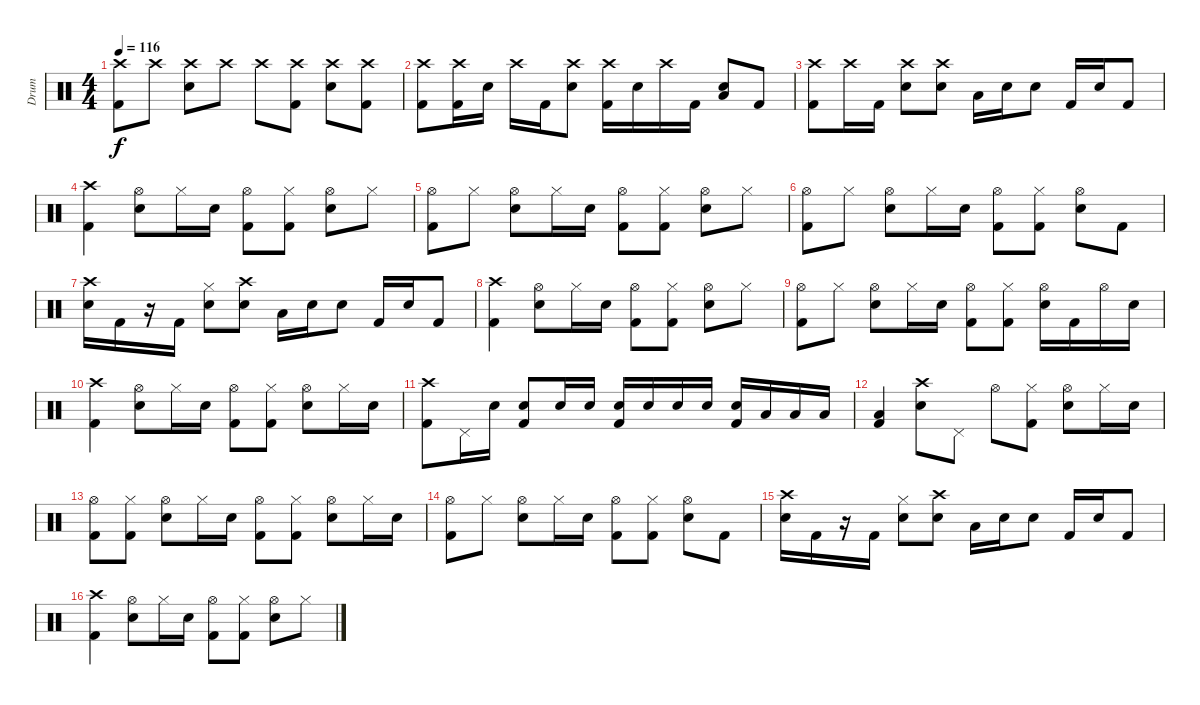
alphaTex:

\track ("Drum" "Drum") {instrument percussion}
\staff {score}
\articulation defaults
\ts (4 4)
\tempo 116
\clef neutral
\ks c
("Crash high (hit)" "Kick (hit) 2").8{dy f} "Crash high (hit)".8 ("Crash high (hit)" "Electric Snare (hit)").8 "Crash high (hit)".8 "Crash high (hit)".8 ("Crash high (hit)" "Kick (hit) 2").8 ("Crash high (hit)" "Electric Snare (hit)").8 ("Crash high (hit)" "Kick (hit) 2").8 |
("Crash high (hit)" "Kick (hit) 2").8 ("Crash high (hit)" "Kick (hit) 2").16 "Electric Snare (hit)".16 "Crash high (hit)".16 "Kick (hit) 2".16 ("Crash high (hit)" "Electric Snare (hit)").8 ("Crash high (hit)" "Kick (hit) 2").16 "Electric Snare (hit)".16 "Crash high (hit)".16 "Kick (hit) 2".16 ("Electric Snare (hit)" "Low Floor Tom (hit)").8 "Kick (hit) 2".8 |
("Crash high (hit)" "Kick (hit) 2").8 "Crash high (hit)".16 "Kick (hit) 2".16 ("Crash high (hit)" "Electric Snare (hit)").8 ("Crash high (hit)" "Electric Snare (hit)").8 "Low Tom (hit)".16 "Electric Snare (hit)".16 "Electric Snare (hit)".8 "Kick (hit) 2".16 "Electric Snare (hit)".16 "Kick (hit) 2".8 |
("Crash high (hit)" "Kick (hit) 2").4 ("Hi-Hat (open)" "Electric Snare (hit)").8 "Hi-Hat (closed)".16 "Electric Snare (hit)".16 ("Hi-Hat (open)" "Kick (hit) 2").8 ("Hi-Hat (closed)" "Kick (hit) 2").8 ("Hi-Hat (open)" "Electric Snare (hit)").8 "Hi-Hat (closed)".8 |
("Hi-Hat (open)" "Kick (hit) 2").8 "Hi-Hat (closed)".8 ("Hi-Hat (open)" "Electric Snare (hit)").8 "Hi-Hat (closed)".16 "Electric Snare (hit)".16 ("Hi-Hat (open)" "Kick (hit) 2").8 ("Hi-Hat (closed)" "Kick (hit) 2").8 ("Hi-Hat (open)" "Electric Snare (hit)").8 "Hi-Hat (closed)".8 |
("Hi-Hat (open)" "Kick (hit) 2").8 "Hi-Hat (closed)".8 ("Hi-Hat (open)" "Electric Snare (hit)").8 "Hi-Hat (closed)".16 "Electric Snare (hit)".16 ("Hi-Hat (open)" "Kick (hit) 2").8 ("Hi-Hat (closed)" "Kick (hit) 2").8 ("Hi-Hat (open)" "Electric Snare (hit)").8 "Kick (hit) 2".8 |
("Crash high (hit)" "Electric Snare (hit)").16 "Kick (hit) 2".16 r.16 "Kick (hit) 2".16 ("Hi-Hat (closed)" "Electric Snare (hit)").8 ("Crash high (hit)" "Electric Snare (hit)").8 "Low Tom (hit)".16 "Electric Snare (hit)".16 "Electric Snare (hit)".8 "Kick (hit) 2".16 "Electric Snare (hit)".16 "Kick (hit) 2".8 |
("Crash high (hit)" "Kick (hit) 2").4 ("Hi-Hat (open)" "Electric Snare (hit)").8 "Hi-Hat (closed)".16 "Electric Snare (hit)".16 ("Hi-Hat (open)" "Kick (hit) 2").8 ("Hi-Hat (closed)" "Kick (hit) 2").8 ("Hi-Hat (open)" "Electric Snare (hit)").8 "Hi-Hat (closed)".8 |
("Hi-Hat (open)" "Kick (hit) 2").8 "Hi-Hat (closed)".8 ("Hi-Hat (open)" "Electric Snare (hit)").8 "Hi-Hat (closed)".16 "Electric Snare (hit)".16 ("Hi-Hat (open)" "Kick (hit) 2").8 ("Hi-Hat (closed)" "Kick (hit) 2").8 ("Hi-Hat (open)" "Electric Snare (hit)").16 "Kick (hit) 2".16 "Hi-Hat (open)".16 "Electric Snare (hit)".16 |
("Crash high (hit)" "Kick (hit) 2").4 ("Hi-Hat (open)" "Electric Snare (hit)").8 "Hi-Hat (closed)".16 "Electric Snare (hit)".16 ("Hi-Hat (open)" "Kick (hit) 2").8 ("Hi-Hat (closed)" "Kick (hit) 2").8 ("Hi-Hat (open)" "Electric Snare (hit)").8 "Hi-Hat (closed)".16 "Electric Snare (hit)".16 |
("Crash high (hit)" "Kick (hit) 2").8 "Pedal Hi-Hat (hit)".16 "Electric Snare (hit)".16 ("Electric Snare (hit)" "Kick (hit) 2").8 "Electric Snare (hit)".16 "Electric Snare (hit)".16 ("Electric Snare (hit)" "Kick (hit) 2").16 "Electric Snare (hit)".16 "Electric Snare (hit)".16 "Electric Snare (hit)".16 ("Electric Snare (hit)" "Kick (hit) 2").16 "Low Tom (hit)".16 "Low Floor Tom (hit)".16 "Low Floor Tom (hit)".16 |
("Low Floor Tom (hit)" "Kick (hit) 2").4 ("Crash high (hit)" "Electric Snare (hit)").8 "Pedal Hi-Hat (hit)".8 "Hi-Hat (open)".8 ("Hi-Hat (closed)" "Kick (hit) 2").8 ("Hi-Hat (open)" "Electric Snare (hit)").8 "Hi-Hat (closed)".16 "Electric Snare (hit)".16 |
("Hi-Hat (open)" "Kick (hit) 2").8 ("Hi-Hat (closed)" "Kick (hit) 2").8 ("Hi-Hat (open)" "Electric Snare (hit)").8 "Hi-Hat (closed)".16 "Electric Snare (hit)".16 ("Hi-Hat (open)" "Kick (hit) 2").8 ("Hi-Hat (closed)" "Kick (hit) 2").8 ("Hi-Hat (open)" "Electric Snare (hit)").8 "Hi-Hat (closed)".16 "Electric Snare (hit)".16 |
("Hi-Hat (open)" "Kick (hit) 2").8 "Hi-Hat (closed)".8 ("Hi-Hat (open)" "Electric Snare (hit)").8 "Hi-Hat (closed)".16 "Electric Snare (hit)".16 ("Hi-Hat (open)" "Kick (hit) 2").8 ("Hi-Hat (closed)" "Kick (hit) 2").8 ("Hi-Hat (open)" "Electric Snare (hit)").8 "Kick (hit) 2".8 |
("Crash high (hit)" "Electric Snare (hit)").16 "Kick (hit) 2".16 r.16 "Kick (hit) 2".16 ("Hi-Hat (closed)" "Electric Snare (hit)").8 ("Crash high (hit)" "Electric Snare (hit)").8 "Low Tom (hit)".16 "Electric Snare (hit)".16 "Electric Snare (hit)".8 "Kick (hit) 2".16 "Electric Snare (hit)".16 "Kick (hit) 2".8 |
("Crash high (hit)" "Kick (hit) 2").4 ("Hi-Hat (open)" "Electric Snare (hit)").8 "Hi-Hat (closed)".16 "Electric Snare (hit)".16 ("Hi-Hat (open)" "Kick (hit) 2").8 ("Hi-Hat (closed)" "Kick (hit) 2").8 ("Hi-Hat (open)" "Electric Snare (hit)").8 "Hi-Hat (closed)".8
